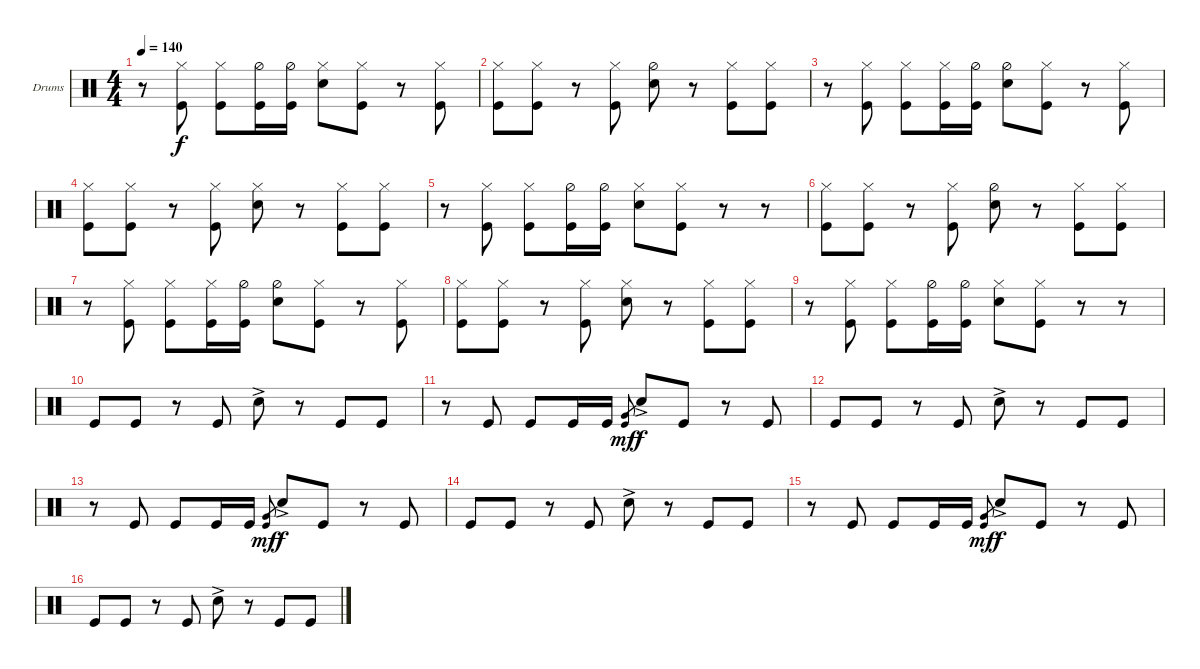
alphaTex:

\defaultSystemsLayout 4
\bracketExtendMode groupsimilarinstruments
\firstSystemTrackNameOrientation horizontal
\otherSystemsTrackNameOrientation horizontal
\track ("Drumkit" "Drums") {instrument percussion}
\staff {score}
\articulation defaults
\ts (4 4)
\tempo 140
\clef neutral
\ks c
r.8{dy f} ("Hi-Hat (closed)" "Kick (hit)").8 ("Hi-Hat (closed)" "Kick (hit)").8 ("Hi-Hat (half)" "Kick (hit)").16 ("Hi-Hat (half)" "Kick (hit)").16 ("Hi-Hat (closed)" "Snare (hit) 2").8 ("Hi-Hat (closed)" "Kick (hit)").8 r.8 ("Hi-Hat (closed)" "Kick (hit)").8 |
("Hi-Hat (closed)" "Kick (hit)").8 ("Hi-Hat (closed)" "Kick (hit)").8 r.8 ("Hi-Hat (closed)" "Kick (hit)").8 ("Hi-Hat (half)" "Snare (hit) 2").8 r.8 ("Hi-Hat (closed)" "Kick (hit)").8 ("Hi-Hat (closed)" "Kick (hit)").8 |
r.8 ("Hi-Hat (closed)" "Kick (hit)").8 ("Hi-Hat (closed)" "Kick (hit)").8 ("Hi-Hat (closed)" "Kick (hit)").16 ("Hi-Hat (half)" "Kick (hit)").16 ("Hi-Hat (half)" "Snare (hit) 2").8 ("Hi-Hat (closed)" "Kick (hit)").8 r.8 ("Hi-Hat (closed)" "Kick (hit)").8 |
("Hi-Hat (closed)" "Kick (hit)").8 ("Hi-Hat (closed)" "Kick (hit)").8 r.8 ("Hi-Hat (closed)" "Kick (hit)").8 ("Hi-Hat (closed)" "Snare (hit) 2").8 r.8 ("Hi-Hat (closed)" "Kick (hit)").8 ("Hi-Hat (closed)" "Kick (hit)").8 |
r.8 ("Hi-Hat (closed)" "Kick (hit)").8 ("Hi-Hat (closed)" "Kick (hit)").8 ("Hi-Hat (half)" "Kick (hit)").16 ("Hi-Hat (half)" "Kick (hit)").16 ("Hi-Hat (closed)" "Snare (hit) 2").8 ("Hi-Hat (closed)" "Kick (hit)").8 r.8 r.8 |
("Hi-Hat (closed)" "Kick (hit)").8 ("Hi-Hat (closed)" "Kick (hit)").8 r.8 ("Hi-Hat (closed)" "Kick (hit)").8 ("Hi-Hat (half)" "Snare (hit) 2").8 r.8 ("Hi-Hat (closed)" "Kick (hit)").8 ("Hi-Hat (closed)" "Kick (hit)").8 |
r.8 ("Hi-Hat (closed)" "Kick (hit)").8 ("Hi-Hat (closed)" "Kick (hit)").8 ("Hi-Hat (closed)" "Kick (hit)").16 ("Hi-Hat (half)" "Kick (hit)").16 ("Hi-Hat (half)" "Snare (hit) 2").8 ("Hi-Hat (closed)" "Kick (hit)").8 r.8 ("Hi-Hat (closed)" "Kick (hit)").8 |
("Hi-Hat (closed)" "Kick (hit)").8 ("Hi-Hat (closed)" "Kick (hit)").8 r.8 ("Hi-Hat (closed)" "Kick (hit)").8 ("Hi-Hat (closed)" "Snare (hit) 2").8 r.8 ("Hi-Hat (closed)" "Kick (hit)").8 ("Hi-Hat (closed)" "Kick (hit)").8 |
r.8 ("Hi-Hat (closed)" "Kick (hit)").8 ("Hi-Hat (closed)" "Kick (hit)").8 ("Hi-Hat (half)" "Kick (hit)").16 ("Hi-Hat (half)" "Kick (hit)").16 ("Hi-Hat (closed)" "Snare (hit) 2").8 ("Hi-Hat (closed)" "Kick (hit)").8 r.8 r.8 |
"Kick (hit)".8 "Kick (hit)".8 r.8 "Kick (hit)".8 "Snare (hit) 2"{ac}.8 r.8 "Kick (hit)".8 "Kick (hit)".8 |
r.8 "Kick (hit)".8 "Kick (hit)".8 "Kick (hit)".16 "Kick (hit)".16 ("Very Low Tom (hit)" "Kick (hit)").8{gr dy mf} "Snare (hit) 2"{ac}.8{dy f} "Kick (hit)".8 r.8 "Kick (hit)".8 |
"Kick (hit)".8 "Kick (hit)".8 r.8 "Kick (hit)".8 "Snare (hit) 2"{ac}.8 r.8 "Kick (hit)".8 "Kick (hit)".8 |
r.8 "Kick (hit)".8 "Kick (hit)".8 "Kick (hit)".16 "Kick (hit)".16 ("Very Low Tom (hit)" "Kick (hit)").8{gr dy mf} "Snare (hit) 2"{ac}.8{dy f} "Kick (hit)".8 r.8 "Kick (hit)".8 |
"Kick (hit)".8 "Kick (hit)".8 r.8 "Kick (hit)".8 "Snare (hit) 2"{ac}.8 r.8 "Kick (hit)".8 "Kick (hit)".8 |
r.8 "Kick (hit)".8 "Kick (hit)".8 "Kick (hit)".16 "Kick (hit)".16 ("Very Low Tom (hit)" "Kick (hit)").8{gr dy mf} "Snare (hit) 2"{ac}.8{dy f} "Kick (hit)".8 r.8 "Kick (hit)".8 |
"Kick (hit)".8 "Kick (hit)".8 r.8 "Kick (hit)".8 "Snare (hit) 2"{ac}.8 r.8 "Kick (hit)".8 "Kick (hit)".8
